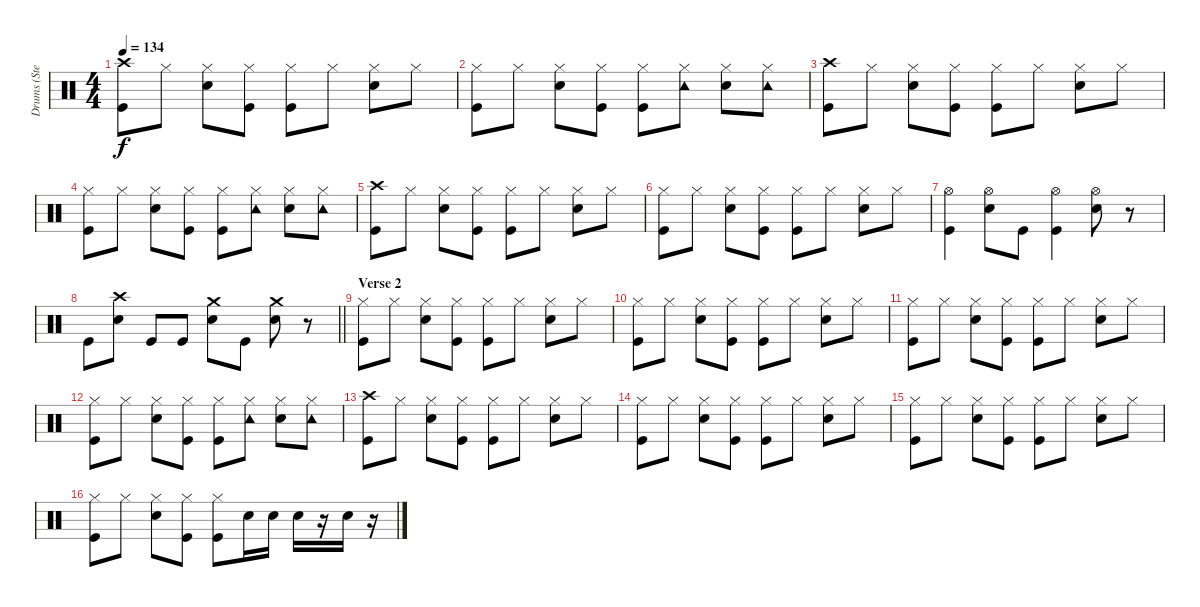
\track ("Drums (Steven Adler)" "Drums (Ste") {instrument percussion}
\staff {score}
\articulation defaults
\ts (4 4)
\tempo 134
\clef neutral
\ks c
("Crash high (hit)" "Kick (hit)").8{dy f} "Hi-Hat (closed)".8 ("Hi-Hat (closed)" "Snare (hit) 2").8 ("Hi-Hat (closed)" "Kick (hit)").8 ("Hi-Hat (closed)" "Kick (hit)").8 "Hi-Hat (closed)".8 ("Hi-Hat (closed)" "Snare (hit) 2").8 "Hi-Hat (closed)".8 |
("Hi-Hat (closed)" "Kick (hit)").8 "Hi-Hat (closed)".8 ("Hi-Hat (closed)" "Snare (hit) 2").8 ("Hi-Hat (closed)" "Kick (hit)").8 ("Hi-Hat (closed)" "Kick (hit)").8 ("Hi-Hat (closed)" "Tambourine (hit)").8 ("Hi-Hat (closed)" "Snare (hit) 2").8 ("Hi-Hat (closed)" "Tambourine (hit)").8 |
("Crash high (hit)" "Kick (hit)").8 "Hi-Hat (closed)".8 ("Hi-Hat (closed)" "Snare (hit) 2").8 ("Hi-Hat (closed)" "Kick (hit)").8 ("Hi-Hat (closed)" "Kick (hit)").8 "Hi-Hat (closed)".8 ("Hi-Hat (closed)" "Snare (hit) 2").8 "Hi-Hat (closed)".8 |
("Hi-Hat (closed)" "Kick (hit)").8 "Hi-Hat (closed)".8 ("Hi-Hat (closed)" "Snare (hit) 2").8 ("Hi-Hat (closed)" "Kick (hit)").8 ("Hi-Hat (closed)" "Kick (hit)").8 ("Hi-Hat (closed)" "Tambourine (hit)").8 ("Hi-Hat (closed)" "Snare (hit) 2").8 ("Hi-Hat (closed)" "Tambourine (hit)").8 |
("Crash high (hit)" "Kick (hit)").8 "Hi-Hat (closed)".8 ("Hi-Hat (closed)" "Snare (hit) 2").8 ("Hi-Hat (closed)" "Kick (hit)").8 ("Hi-Hat (closed)" "Kick (hit)").8 "Hi-Hat (closed)".8 ("Hi-Hat (closed)" "Snare (hit) 2").8 "Hi-Hat (closed)".8 |
("Hi-Hat (closed)" "Kick (hit)").8 "Hi-Hat (closed)".8 ("Hi-Hat (closed)" "Snare (hit) 2").8 ("Hi-Hat (closed)" "Kick (hit)").8 ("Hi-Hat (closed)" "Kick (hit)").8 "Hi-Hat (closed)".8 ("Hi-Hat (closed)" "Snare (hit) 2").8 "Hi-Hat (closed)".8 |
("Hi-Hat (open)" "Kick (hit)").4 ("Hi-Hat (open)" "Snare (hit) 2").8 "Kick (hit)".8 ("Hi-Hat (open)" "Kick (hit)").4 ("Hi-Hat (open)" "Snare (hit) 2").8 r.8 |
\barLineRight lightlight "Kick (hit)".8
("Crash high (hit)" "Snare (hit) 2").8 "Kick (hit)".8 "Kick (hit)".8 ("Crash medium (hit)" "Snare (hit) 2").8 "Kick (hit)".8 ("Crash medium (hit)" "Snare (hit) 2").8 r.8 |
\section ("" "Verse 2")
("Hi-Hat (closed)" "Kick (hit)").8 "Hi-Hat (closed)".8 ("Hi-Hat (closed)" "Snare (hit) 2").8 ("Hi-Hat (closed)" "Kick (hit)").8 ("Hi-Hat (closed)" "Kick (hit)").8 "Hi-Hat (closed)".8 ("Hi-Hat (closed)" "Snare (hit) 2").8 "Hi-Hat (closed)".8 |
("Hi-Hat (closed)" "Kick (hit)").8 "Hi-Hat (closed)".8 ("Hi-Hat (closed)" "Snare (hit) 2").8 ("Hi-Hat (closed)" "Kick (hit)").8 ("Hi-Hat (closed)" "Kick (hit)").8 "Hi-Hat (closed)".8 ("Hi-Hat (closed)" "Snare (hit) 2").8 "Hi-Hat (closed)".8 |
("Hi-Hat (closed)" "Kick (hit)").8 "Hi-Hat (closed)".8 ("Hi-Hat (closed)" "Snare (hit) 2").8 ("Hi-Hat (closed)" "Kick (hit)").8 ("Hi-Hat (closed)" "Kick (hit)").8 "Hi-Hat (closed)".8 ("Hi-Hat (closed)" "Snare (hit) 2").8 "Hi-Hat (closed)".8 |
("Hi-Hat (closed)" "Kick (hit)").8 "Hi-Hat (closed)".8 ("Hi-Hat (closed)" "Snare (hit) 2").8 ("Hi-Hat (closed)" "Kick (hit)").8 ("Hi-Hat (closed)" "Kick (hit)").8 ("Hi-Hat (closed)" "Tambourine (hit)").8 ("Hi-Hat (closed)" "Snare (hit) 2").8 ("Hi-Hat (closed)" "Tambourine (hit)").8 |
("Crash high (hit)" "Kick (hit)").8 "Hi-Hat (closed)".8 ("Hi-Hat (closed)" "Snare (hit) 2").8 ("Hi-Hat (closed)" "Kick (hit)").8 ("Hi-Hat (closed)" "Kick (hit)").8 "Hi-Hat (closed)".8 ("Hi-Hat (closed)" "Snare (hit) 2").8 "Hi-Hat (closed)".8 |
("Hi-Hat (closed)" "Kick (hit)").8 "Hi-Hat (closed)".8 ("Hi-Hat (closed)" "Snare (hit) 2").8 ("Hi-Hat (closed)" "Kick (hit)").8 ("Hi-Hat (closed)" "Kick (hit)").8 "Hi-Hat (closed)".8 ("Hi-Hat (closed)" "Snare (hit) 2").8 "Hi-Hat (closed)".8 |
("Hi-Hat (closed)" "Kick (hit)").8 "Hi-Hat (closed)".8 ("Hi-Hat (closed)" "Snare (hit) 2").8 ("Hi-Hat (closed)" "Kick (hit)").8 ("Hi-Hat (closed)" "Kick (hit)").8 "Hi-Hat (closed)".8 ("Hi-Hat (closed)" "Snare (hit) 2").8 "Hi-Hat (closed)".8 |
("Hi-Hat (closed)" "Kick (hit)").8 "Hi-Hat (closed)".8 ("Hi-Hat (closed)" "Snare (hit) 2").8 ("Hi-Hat (closed)" "Kick (hit)").8 ("Hi-Hat (closed)" "Kick (hit)").8 "Snare (hit) 2".16 "Snare (hit) 2".16 "Snare (hit) 2".16 r.16 "Snare (hit) 2".16 r.16
